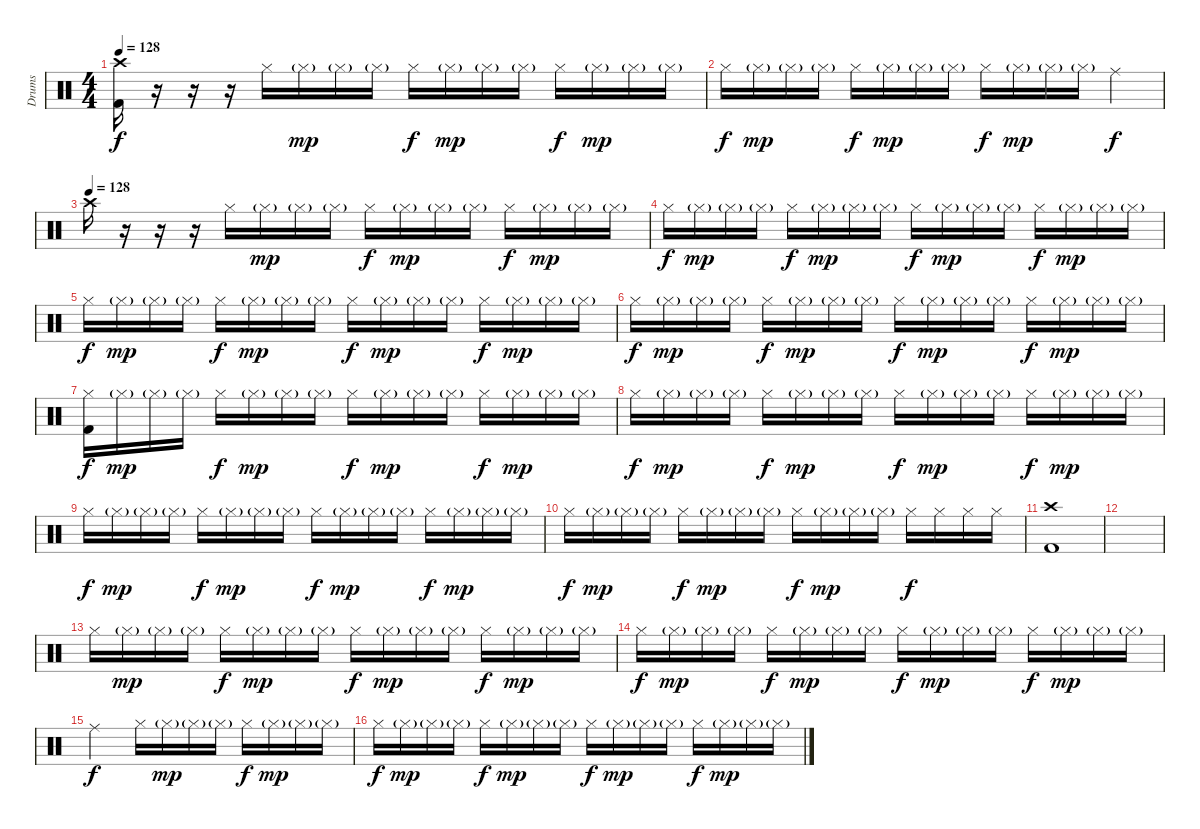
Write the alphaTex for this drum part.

\track ("Drums" "Drums") {instrument percussion}
\staff {score}
\articulation defaults
\ts (4 4)
\tempo 128
\clef neutral
\ks c
("Crash high (hit)" "Kick (hit) 2").16{dy f} r.16 r.16 r.16 "Hi-Hat (closed)".16{volume 0} "Hi-Hat (closed)"{g}.16{dy mp volume 13} "Hi-Hat (closed)"{g}.16 "Hi-Hat (closed)"{g}.16 "Hi-Hat (closed)".16{dy f} "Hi-Hat (closed)"{g}.16{dy mp} "Hi-Hat (closed)"{g}.16 "Hi-Hat (closed)"{g}.16 "Hi-Hat (closed)".16{dy f} "Hi-Hat (closed)"{g}.16{dy mp} "Hi-Hat (closed)"{g}.16 "Hi-Hat (closed)"{g}.16 |
"Hi-Hat (closed)".16{dy f} "Hi-Hat (closed)"{g}.16{dy mp} "Hi-Hat (closed)"{g}.16 "Hi-Hat (closed)"{g}.16 "Hi-Hat (closed)".16{dy f} "Hi-Hat (closed)"{g}.16{dy mp} "Hi-Hat (closed)"{g}.16 "Hi-Hat (closed)"{g}.16 "Hi-Hat (closed)".16{dy f} "Hi-Hat (closed)"{g}.16{dy mp} "Hi-Hat (closed)"{g}.16 "Hi-Hat (closed)"{g}.16 "Ride (middle)".4{dy f} |
\tempo (128)
"Crash high (hit)".16 r.16 r.16 r.16{volume 0} "Hi-Hat (closed)".16{volume 13} "Hi-Hat (closed)"{g}.16{dy mp} "Hi-Hat (closed)"{g}.16 "Hi-Hat (closed)"{g}.16 "Hi-Hat (closed)".16{dy f} "Hi-Hat (closed)"{g}.16{dy mp} "Hi-Hat (closed)"{g}.16 "Hi-Hat (closed)"{g}.16 "Hi-Hat (closed)".16{dy f} "Hi-Hat (closed)"{g}.16{dy mp} "Hi-Hat (closed)"{g}.16 "Hi-Hat (closed)"{g}.16 |
"Hi-Hat (closed)".16{dy f} "Hi-Hat (closed)"{g}.16{dy mp} "Hi-Hat (closed)"{g}.16 "Hi-Hat (closed)"{g}.16 "Hi-Hat (closed)".16{dy f} "Hi-Hat (closed)"{g}.16{dy mp} "Hi-Hat (closed)"{g}.16 "Hi-Hat (closed)"{g}.16 "Hi-Hat (closed)".16{dy f} "Hi-Hat (closed)"{g}.16{dy mp} "Hi-Hat (closed)"{g}.16 "Hi-Hat (closed)"{g}.16 "Hi-Hat (closed)".16{dy f} "Hi-Hat (closed)"{g}.16{dy mp} "Hi-Hat (closed)"{g}.16 "Hi-Hat (closed)"{g}.16 |
"Hi-Hat (closed)".16{dy f} "Hi-Hat (closed)"{g}.16{dy mp} "Hi-Hat (closed)"{g}.16 "Hi-Hat (closed)"{g}.16 "Hi-Hat (closed)".16{dy f} "Hi-Hat (closed)"{g}.16{dy mp} "Hi-Hat (closed)"{g}.16 "Hi-Hat (closed)"{g}.16 "Hi-Hat (closed)".16{dy f} "Hi-Hat (closed)"{g}.16{dy mp} "Hi-Hat (closed)"{g}.16 "Hi-Hat (closed)"{g}.16 "Hi-Hat (closed)".16{dy f} "Hi-Hat (closed)"{g}.16{dy mp} "Hi-Hat (closed)"{g}.16 "Hi-Hat (closed)"{g}.16 |
"Hi-Hat (closed)".16{dy f} "Hi-Hat (closed)"{g}.16{dy mp} "Hi-Hat (closed)"{g}.16 "Hi-Hat (closed)"{g}.16 "Hi-Hat (closed)".16{dy f} "Hi-Hat (closed)"{g}.16{dy mp} "Hi-Hat (closed)"{g}.16 "Hi-Hat (closed)"{g}.16 "Hi-Hat (closed)".16{dy f} "Hi-Hat (closed)"{g}.16{dy mp} "Hi-Hat (closed)"{g}.16 "Hi-Hat (closed)"{g}.16 "Hi-Hat (closed)".16{dy f} "Hi-Hat (closed)"{g}.16{dy mp} "Hi-Hat (closed)"{g}.16 "Hi-Hat (closed)"{g}.16 |
("Hi-Hat (closed)" "Kick (hit) 2").16{dy f} "Hi-Hat (closed)"{g}.16{dy mp} "Hi-Hat (closed)"{g}.16 "Hi-Hat (closed)"{g}.16 "Hi-Hat (closed)".16{dy f} "Hi-Hat (closed)"{g}.16{dy mp} "Hi-Hat (closed)"{g}.16 "Hi-Hat (closed)"{g}.16 "Hi-Hat (closed)".16{dy f} "Hi-Hat (closed)"{g}.16{dy mp} "Hi-Hat (closed)"{g}.16 "Hi-Hat (closed)"{g}.16 "Hi-Hat (closed)".16{dy f} "Hi-Hat (closed)"{g}.16{dy mp} "Hi-Hat (closed)"{g}.16 "Hi-Hat (closed)"{g}.16 |
"Hi-Hat (closed)".16{dy f} "Hi-Hat (closed)"{g}.16{dy mp} "Hi-Hat (closed)"{g}.16 "Hi-Hat (closed)"{g}.16 "Hi-Hat (closed)".16{dy f} "Hi-Hat (closed)"{g}.16{dy mp} "Hi-Hat (closed)"{g}.16 "Hi-Hat (closed)"{g}.16 "Hi-Hat (closed)".16{dy f} "Hi-Hat (closed)"{g}.16{dy mp} "Hi-Hat (closed)"{g}.16 "Hi-Hat (closed)"{g}.16 "Hi-Hat (closed)".16{dy f} "Hi-Hat (closed)"{g}.16{dy mp} "Hi-Hat (closed)"{g}.16 "Hi-Hat (closed)"{g}.16 |
"Hi-Hat (closed)".16{dy f} "Hi-Hat (closed)"{g}.16{dy mp} "Hi-Hat (closed)"{g}.16 "Hi-Hat (closed)"{g}.16 "Hi-Hat (closed)".16{dy f} "Hi-Hat (closed)"{g}.16{dy mp} "Hi-Hat (closed)"{g}.16 "Hi-Hat (closed)"{g}.16 "Hi-Hat (closed)".16{dy f} "Hi-Hat (closed)"{g}.16{dy mp} "Hi-Hat (closed)"{g}.16 "Hi-Hat (closed)"{g}.16 "Hi-Hat (closed)".16{dy f} "Hi-Hat (closed)"{g}.16{dy mp} "Hi-Hat (closed)"{g}.16 "Hi-Hat (closed)"{g}.16 |
"Hi-Hat (closed)".16{dy f} "Hi-Hat (closed)"{g}.16{dy mp} "Hi-Hat (closed)"{g}.16 "Hi-Hat (closed)"{g}.16 "Hi-Hat (closed)".16{dy f} "Hi-Hat (closed)"{g}.16{dy mp} "Hi-Hat (closed)"{g}.16 "Hi-Hat (closed)"{g}.16 "Hi-Hat (closed)".16{dy f} "Hi-Hat (closed)"{g}.16{dy mp} "Hi-Hat (closed)"{g}.16 "Hi-Hat (closed)"{g}.16 "Hi-Hat (closed)".16{dy f} "Hi-Hat (closed)".16 "Hi-Hat (closed)".16 "Hi-Hat (closed)".16 |
("Crash high (hit)" "Kick (hit) 2").1 |
|
"Hi-Hat (closed)".16{volume 13} "Hi-Hat (closed)"{g}.16{dy mp} "Hi-Hat (closed)"{g}.16 "Hi-Hat (closed)"{g}.16 "Hi-Hat (closed)".16{dy f} "Hi-Hat (closed)"{g}.16{dy mp} "Hi-Hat (closed)"{g}.16 "Hi-Hat (closed)"{g}.16 "Hi-Hat (closed)".16{dy f} "Hi-Hat (closed)"{g}.16{dy mp} "Hi-Hat (closed)"{g}.16 "Hi-Hat (closed)"{g}.16 "Hi-Hat (closed)".16{dy f} "Hi-Hat (closed)"{g}.16{dy mp} "Hi-Hat (closed)"{g}.16 "Hi-Hat (closed)"{g}.16 |
"Hi-Hat (closed)".16{dy f} "Hi-Hat (closed)"{g}.16{dy mp} "Hi-Hat (closed)"{g}.16 "Hi-Hat (closed)"{g}.16 "Hi-Hat (closed)".16{dy f} "Hi-Hat (closed)"{g}.16{dy mp} "Hi-Hat (closed)"{g}.16 "Hi-Hat (closed)"{g}.16 "Hi-Hat (closed)".16{dy f} "Hi-Hat (closed)"{g}.16{dy mp} "Hi-Hat (closed)"{g}.16 "Hi-Hat (closed)"{g}.16 "Hi-Hat (closed)".16{dy f} "Hi-Hat (closed)"{g}.16{dy mp} "Hi-Hat (closed)"{g}.16 "Hi-Hat (closed)"{g}.16 |
"Ride (middle)".2{dy f} "Hi-Hat (closed)".16{volume 0} "Hi-Hat (closed)"{g}.16{dy mp volume 13} "Hi-Hat (closed)"{g}.16 "Hi-Hat (closed)"{g}.16 "Hi-Hat (closed)".16{dy f} "Hi-Hat (closed)"{g}.16{dy mp} "Hi-Hat (closed)"{g}.16 "Hi-Hat (closed)"{g}.16 |
"Hi-Hat (closed)".16{dy f} "Hi-Hat (closed)"{g}.16{dy mp} "Hi-Hat (closed)"{g}.16 "Hi-Hat (closed)"{g}.16 "Hi-Hat (closed)".16{dy f} "Hi-Hat (closed)"{g}.16{dy mp} "Hi-Hat (closed)"{g}.16 "Hi-Hat (closed)"{g}.16 "Hi-Hat (closed)".16{dy f} "Hi-Hat (closed)"{g}.16{dy mp} "Hi-Hat (closed)"{g}.16 "Hi-Hat (closed)"{g}.16 "Hi-Hat (closed)".16{dy f} "Hi-Hat (closed)"{g}.16{dy mp} "Hi-Hat (closed)"{g}.16 "Hi-Hat (closed)"{g}.16
